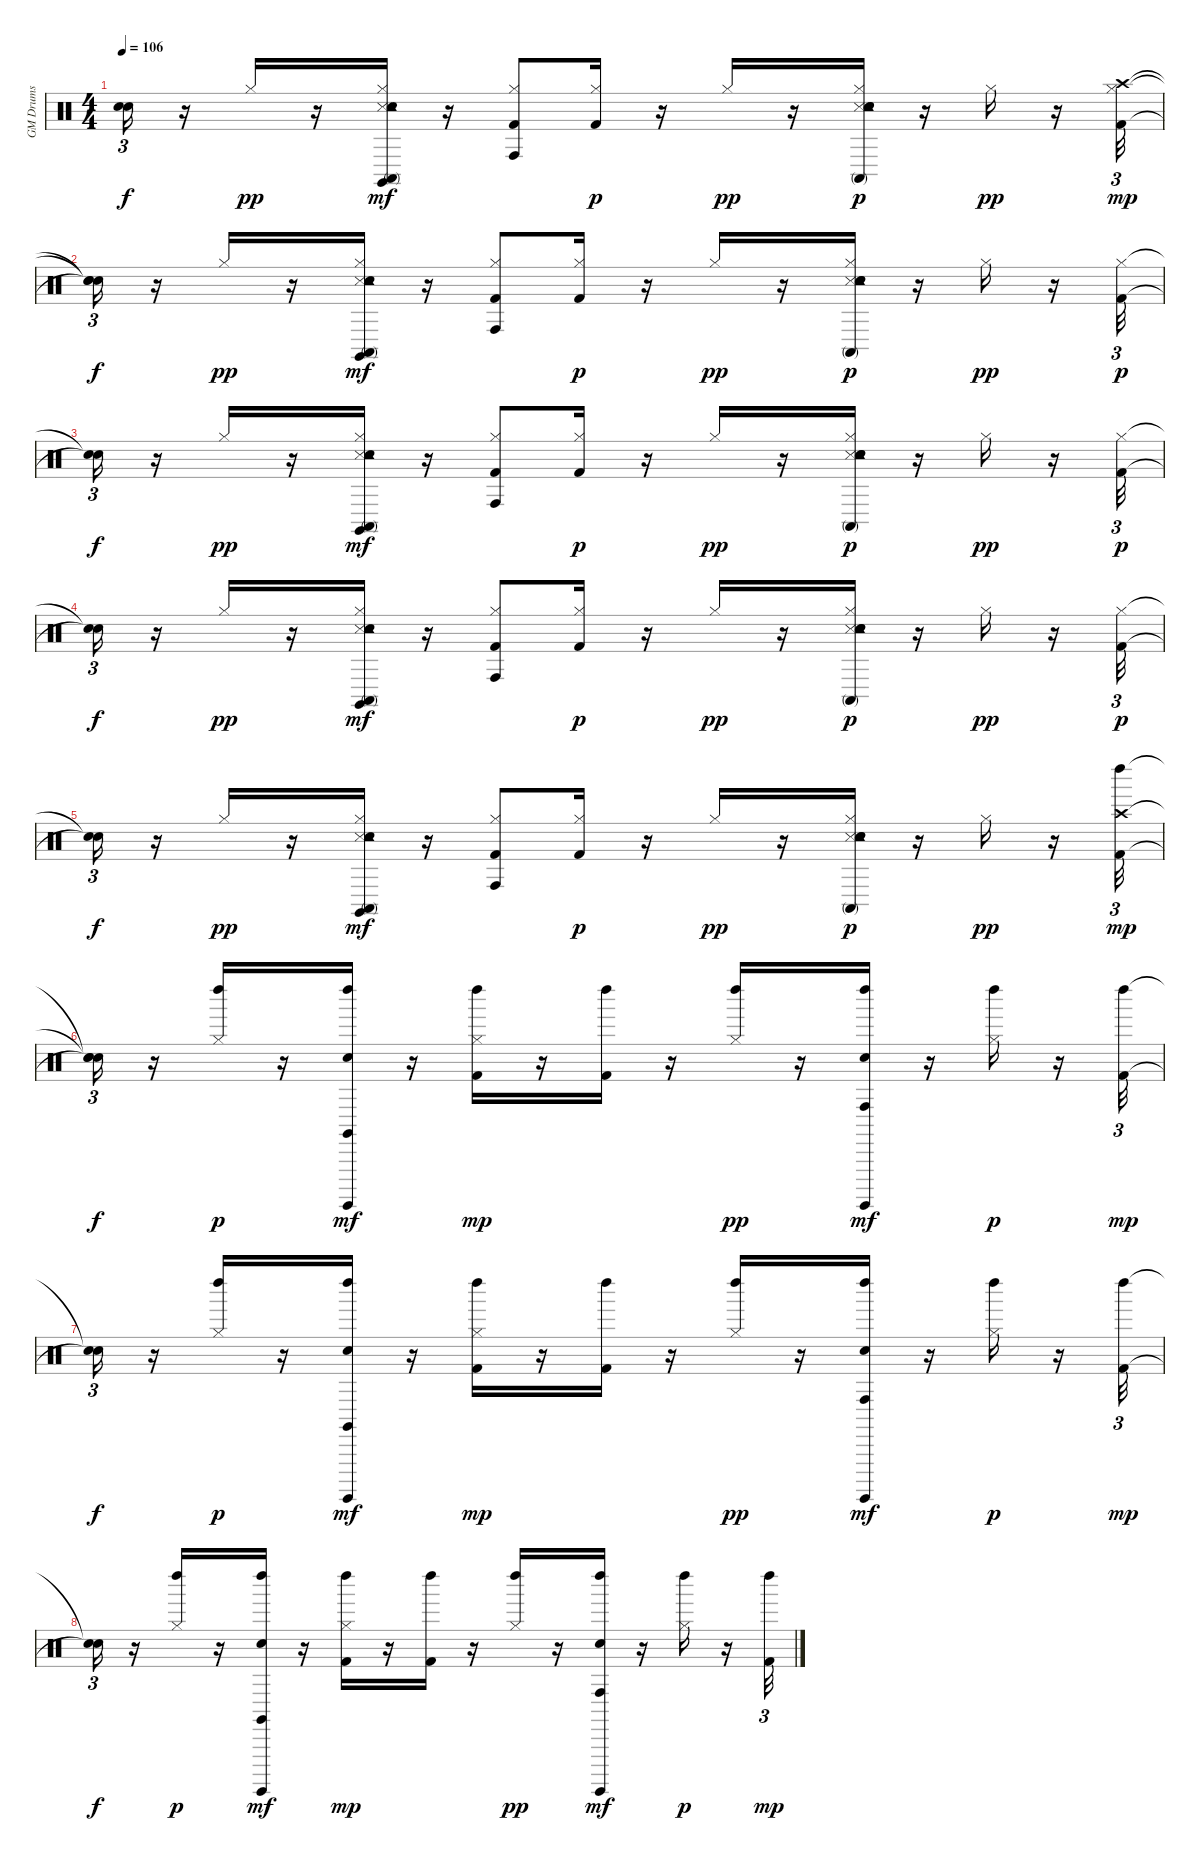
\track ("GM Drums" "GM Drums") {instrument percussion}
\staff {score}
\articulation defaults
\ts (4 4)
\tempo 106
\clef neutral
\ks c
("Snare (hit)"{t} "Snare (hit)"{t}).16{tu (3 2) dy f} r.16 "Hi-Hat (closed)".16{dy pp} r.16 ("Snare (side stick) 3" "Hand Clap (hit)" "Hi-Hat (closed)" "Tambourine (hit)" "Conga high (mute)" "Claves (hit)").16{dy mf} r.16 ("Kick (hit) 2" "Hi-Hat (closed)" "Conga high (hit)").8 ("Kick (hit) 2" "Hi-Hat (closed)").16{dy p} r.16 "Hi-Hat (closed)".16{dy pp} r.16 ("Snare (side stick) 3" "Snare (hit) 2" "Hand Clap (hit)" "Hi-Hat (closed)" "Tambourine (hit)" "Conga high (mute)").16{dy p} r.16 "Hi-Hat (closed)".16{dy pp} r.16 ("Kick (hit) 2" "Hi-Hat (closed)" "Crash high (hit)").32{tu (3 2) dy mp} |
("Snare (hit)"{t} "Snare (hit)"{t} "Snare (hit)"{t}).16{tu (3 2) dy f} r.16 "Hi-Hat (closed)".16{dy pp} r.16 ("Snare (side stick) 3" "Hand Clap (hit)" "Hi-Hat (closed)" "Tambourine (hit)" "Conga high (mute)" "Claves (hit)").16{dy mf} r.16 ("Kick (hit) 2" "Hi-Hat (closed)" "Conga high (hit)").8 ("Kick (hit) 2" "Hi-Hat (closed)").16{dy p} r.16 "Hi-Hat (closed)".16{dy pp} r.16 ("Snare (side stick) 3" "Snare (hit) 2" "Hand Clap (hit)" "Hi-Hat (closed)" "Tambourine (hit)" "Conga high (mute)").16{dy p} r.16 "Hi-Hat (closed)".16{dy pp} r.16 ("Kick (hit) 2" "Hi-Hat (closed)").32{tu (3 2) dy p} |
("Snare (hit)"{t} "Snare (hit)"{t}).16{tu (3 2) dy f} r.16 "Hi-Hat (closed)".16{dy pp} r.16 ("Snare (side stick) 3" "Hand Clap (hit)" "Hi-Hat (closed)" "Tambourine (hit)" "Conga high (mute)" "Claves (hit)").16{dy mf} r.16 ("Kick (hit) 2" "Hi-Hat (closed)" "Conga high (hit)").8 ("Kick (hit) 2" "Hi-Hat (closed)").16{dy p} r.16 "Hi-Hat (closed)".16{dy pp} r.16 ("Snare (side stick) 3" "Snare (hit) 2" "Hand Clap (hit)" "Hi-Hat (closed)" "Tambourine (hit)" "Conga high (mute)").16{dy p} r.16 "Hi-Hat (closed)".16{dy pp} r.16 ("Kick (hit) 2" "Hi-Hat (closed)").32{tu (3 2) dy p} |
("Snare (hit)"{t} "Snare (hit)"{t}).16{tu (3 2) dy f} r.16 "Hi-Hat (closed)".16{dy pp} r.16 ("Snare (side stick) 3" "Hand Clap (hit)" "Hi-Hat (closed)" "Tambourine (hit)" "Conga high (mute)" "Claves (hit)").16{dy mf} r.16 ("Kick (hit) 2" "Hi-Hat (closed)" "Conga high (hit)").8 ("Kick (hit) 2" "Hi-Hat (closed)").16{dy p} r.16 "Hi-Hat (closed)".16{dy pp} r.16 ("Snare (side stick) 3" "Snare (hit) 2" "Hand Clap (hit)" "Hi-Hat (closed)" "Tambourine (hit)" "Conga high (mute)").16{dy p} r.16 "Hi-Hat (closed)".16{dy pp} r.16 ("Kick (hit) 2" "Hi-Hat (closed)").32{tu (3 2) dy p} |
("Snare (hit)"{t} "Snare (hit)"{t}).16{tu (3 2) dy f} r.16 "Hi-Hat (closed)".16{dy pp} r.16 ("Snare (side stick) 3" "Hand Clap (hit)" "Hi-Hat (closed)" "Tambourine (hit)" "Conga high (mute)" "Claves (hit)").16{dy mf} r.16 ("Kick (hit) 2" "Hi-Hat (closed)" "Conga high (hit)").8 ("Kick (hit) 2" "Hi-Hat (closed)").16{dy p} r.16 "Hi-Hat (closed)".16{dy pp} r.16 ("Snare (side stick) 3" "Snare (hit) 2" "Hand Clap (hit)" "Hi-Hat (closed)" "Tambourine (hit)" "Conga high (mute)").16{dy p} r.16 "Hi-Hat (closed)".16{dy pp} r.16 ("Kick (hit) 2" "Crash high (hit)" "Left Maraca (hit)").32{tu (3 2) dy mp} |
("Snare (hit)"{t} "Snare (hit)"{t} "Snare (hit)"{t}).16{tu (3 2) dy f} r.16 ("Hi-Hat (closed)" "Left Maraca (hit)").16{dy p} r.16 ("Hand Clap (hit)" "Left Maraca (hit)" "Claves (hit)" "Surdo (hit)").16{dy mf} r.16 ("Kick (hit) 2" "Hi-Hat (closed)" "Left Maraca (hit)").16{dy mp} r.16 ("Kick (hit) 2" "Left Maraca (hit)").16 r.16 ("Hi-Hat (closed)" "Left Maraca (hit)").16{dy pp} r.16 ("Hand Clap (hit)" "Conga high (hit)" "Left Maraca (hit)" "Surdo (hit)").16{dy mf} r.16 ("Hi-Hat (closed)" "Left Maraca (hit)").16{dy p} r.16 ("Kick (hit) 2" "Left Maraca (hit)").32{tu (3 2) dy mp} |
("Snare (hit)"{t} "Snare (hit)"{t}).16{tu (3 2) dy f} r.16 ("Hi-Hat (closed)" "Left Maraca (hit)").16{dy p} r.16 ("Hand Clap (hit)" "Left Maraca (hit)" "Claves (hit)" "Surdo (hit)").16{dy mf} r.16 ("Kick (hit) 2" "Hi-Hat (closed)" "Left Maraca (hit)").16{dy mp} r.16 ("Kick (hit) 2" "Left Maraca (hit)").16 r.16 ("Hi-Hat (closed)" "Left Maraca (hit)").16{dy pp} r.16 ("Hand Clap (hit)" "Conga high (hit)" "Left Maraca (hit)" "Surdo (hit)").16{dy mf} r.16 ("Hi-Hat (closed)" "Left Maraca (hit)").16{dy p} r.16 ("Kick (hit) 2" "Left Maraca (hit)").32{tu (3 2) dy mp} |
("Snare (hit)"{t} "Snare (hit)"{t}).16{tu (3 2) dy f} r.16 ("Hi-Hat (closed)" "Left Maraca (hit)").16{dy p} r.16 ("Hand Clap (hit)" "Left Maraca (hit)" "Claves (hit)" "Surdo (hit)").16{dy mf} r.16 ("Kick (hit) 2" "Hi-Hat (closed)" "Left Maraca (hit)").16{dy mp} r.16 ("Kick (hit) 2" "Left Maraca (hit)").16 r.16 ("Hi-Hat (closed)" "Left Maraca (hit)").16{dy pp} r.16 ("Hand Clap (hit)" "Conga high (hit)" "Left Maraca (hit)" "Surdo (hit)").16{dy mf} r.16 ("Hi-Hat (closed)" "Left Maraca (hit)").16{dy p} r.16 ("Kick (hit) 2" "Left Maraca (hit)").32{tu (3 2) dy mp}
